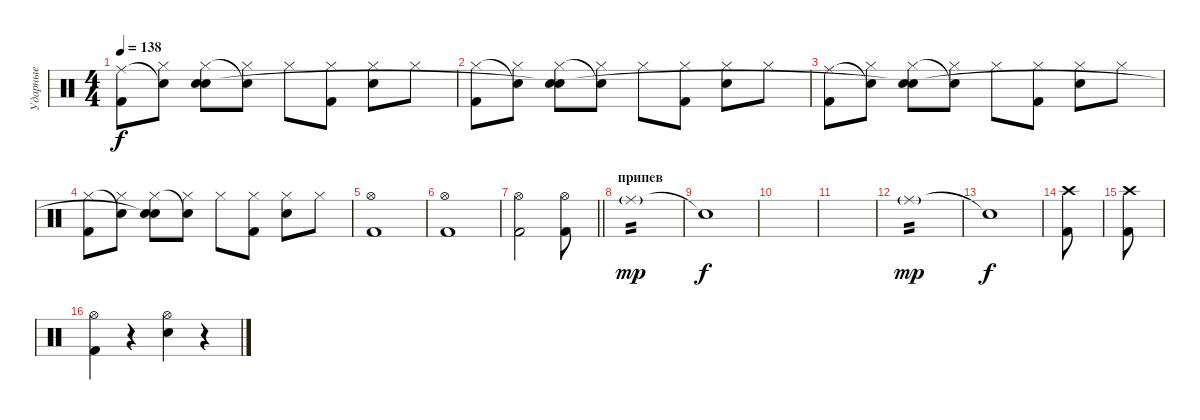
\track ("Ударные" "Ударные") {instrument percussion}
\staff {score}
\articulation defaults
\ts (4 4)
\tempo 138
\clef neutral
\ks c
("Kick (hit) 2" "Ride (middle)").8{dy f} ("Hi-Hat (closed)" "Snare (hit)"{t}).8 ("Snare (hit) 2" "Hi-Hat (closed)" "Snare (hit)").8 ("Hi-Hat (closed)" "Snare (hit)"{t}).8 "Hi-Hat (closed)".8 ("Kick (hit) 2" "Hi-Hat (closed)").8 ("Snare (hit) 2" "Hi-Hat (closed)").8 "Hi-Hat (closed)".8 |
("Kick (hit) 2" "Hi-Hat (closed)").8 ("Hi-Hat (closed)" "Snare (hit)"{t}).8 ("Snare (hit) 2" "Hi-Hat (closed)" "Snare (hit)"{t}).8 ("Hi-Hat (closed)" "Snare (hit)"{t}).8 "Hi-Hat (closed)".8 ("Kick (hit) 2" "Hi-Hat (closed)").8 ("Snare (hit) 2" "Hi-Hat (closed)").8 "Hi-Hat (closed)".8 |
("Kick (hit) 2" "Ride (middle)").8 ("Hi-Hat (closed)" "Snare (hit)"{t}).8 ("Snare (hit) 2" "Hi-Hat (closed)" "Snare (hit)"{t}).8 ("Hi-Hat (closed)" "Snare (hit)"{t}).8 "Hi-Hat (closed)".8 ("Kick (hit) 2" "Hi-Hat (closed)").8 ("Snare (hit) 2" "Hi-Hat (closed)").8 "Hi-Hat (closed)".8 |
("Kick (hit) 2" "Hi-Hat (closed)").8 ("Hi-Hat (closed)" "Snare (hit)"{t}).8 ("Snare (hit) 2" "Hi-Hat (closed)" "Snare (hit)"{t}).8 ("Hi-Hat (closed)" "Snare (hit)"{t}).8 "Hi-Hat (closed)".8 ("Kick (hit) 2" "Hi-Hat (closed)").8 ("Snare (hit) 2" "Hi-Hat (closed)").8 "Hi-Hat (closed)".8 |
("Kick (hit) 2" "Hi-Hat (open)").1 |
("Kick (hit) 2" "Hi-Hat (open)").1 |
\barLineRight lightlight
("Kick (hit) 2" "Hi-Hat (open)").2 ("Kick (hit) 2" "Hi-Hat (open)").8 |
\section ("" "припев")
"Ride (middle)"{g}.1{tp 2 dy mp volume 14} |
"Snare (hit)"{t}.1{dy f} |
|
|
"Ride (middle)"{g}.1{tp 2 dy mp volume 14} |
"Snare (hit)"{t}.1{dy f} |
("Crash high (hit)" "Kick (hit) 2").8 |
("Crash high (hit)" "Kick (hit) 2").8 |
("Hi-Hat (open)" "Kick (hit) 2").4 r.4 ("Hi-Hat (open)" "Snare (hit) 2").4 r.4
